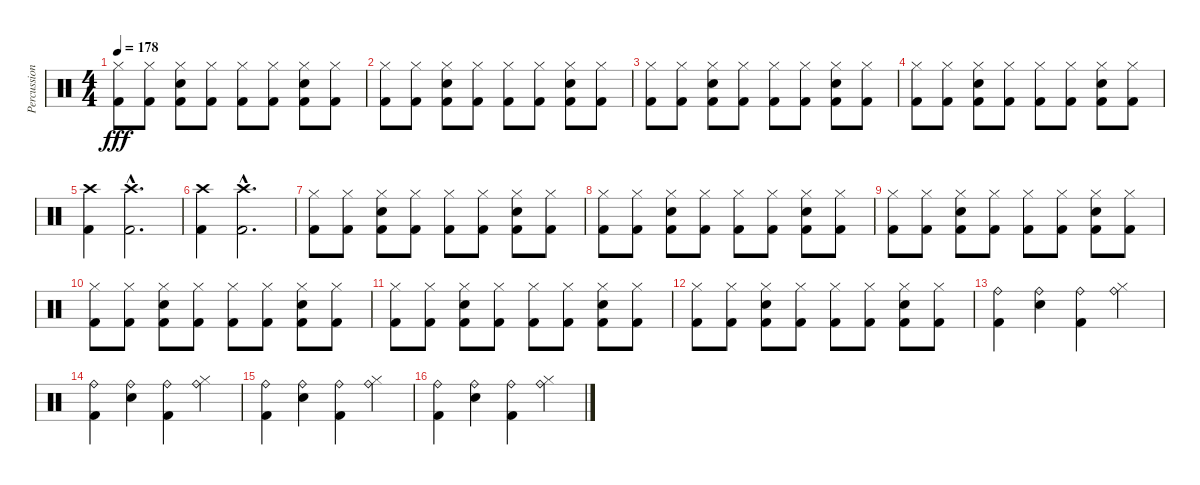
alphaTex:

\track ("Percussion" "Percussion") {instrument percussion}
\staff {score}
\articulation defaults
\ts (4 4)
\tempo 178
\clef neutral
\ks c
("Hi-Hat (closed)" "Kick (hit) 2").8{dy fff} ("Hi-Hat (closed)" "Kick (hit) 2").8 ("Hi-Hat (closed)" "Kick (hit) 2" "Electric Snare (hit)").8 ("Hi-Hat (closed)" "Kick (hit) 2").8 ("Hi-Hat (closed)" "Kick (hit) 2").8 ("Hi-Hat (closed)" "Kick (hit) 2").8 ("Hi-Hat (closed)" "Kick (hit) 2" "Electric Snare (hit)").8 ("Hi-Hat (closed)" "Kick (hit) 2").8 |
("Hi-Hat (closed)" "Kick (hit) 2").8 ("Hi-Hat (closed)" "Kick (hit) 2").8 ("Hi-Hat (closed)" "Kick (hit) 2" "Electric Snare (hit)").8 ("Hi-Hat (closed)" "Kick (hit) 2").8 ("Hi-Hat (closed)" "Kick (hit) 2").8 ("Hi-Hat (closed)" "Kick (hit) 2").8 ("Hi-Hat (closed)" "Kick (hit) 2" "Electric Snare (hit)").8 ("Hi-Hat (closed)" "Kick (hit) 2").8 |
("Hi-Hat (closed)" "Kick (hit) 2").8 ("Hi-Hat (closed)" "Kick (hit) 2").8 ("Hi-Hat (closed)" "Kick (hit) 2" "Electric Snare (hit)").8 ("Hi-Hat (closed)" "Kick (hit) 2").8 ("Hi-Hat (closed)" "Kick (hit) 2").8 ("Hi-Hat (closed)" "Kick (hit) 2").8 ("Hi-Hat (closed)" "Kick (hit) 2" "Electric Snare (hit)").8 ("Hi-Hat (closed)" "Kick (hit) 2").8 |
("Hi-Hat (closed)" "Kick (hit) 2").8 ("Hi-Hat (closed)" "Kick (hit) 2").8 ("Hi-Hat (closed)" "Kick (hit) 2" "Electric Snare (hit)").8 ("Hi-Hat (closed)" "Kick (hit) 2").8 ("Hi-Hat (closed)" "Kick (hit) 2").8 ("Hi-Hat (closed)" "Kick (hit) 2").8 ("Hi-Hat (closed)" "Kick (hit) 2" "Electric Snare (hit)").8 ("Hi-Hat (closed)" "Kick (hit) 2").8 |
("Crash high (hit)" "Kick (hit) 2").4 ("Crash high (hit)"{hac} "Kick (hit) 2"{hac}).2{d} |
("Crash high (hit)" "Kick (hit) 2").4 ("Crash high (hit)"{hac} "Kick (hit) 2"{hac}).2{d} |
("Hi-Hat (closed)" "Kick (hit) 2").8 ("Hi-Hat (closed)" "Kick (hit) 2").8 ("Hi-Hat (closed)" "Kick (hit) 2" "Electric Snare (hit)").8 ("Hi-Hat (closed)" "Kick (hit) 2").8 ("Hi-Hat (closed)" "Kick (hit) 2").8 ("Hi-Hat (closed)" "Kick (hit) 2").8 ("Hi-Hat (closed)" "Kick (hit) 2" "Electric Snare (hit)").8 ("Hi-Hat (closed)" "Kick (hit) 2").8 |
("Hi-Hat (closed)" "Kick (hit) 2").8 ("Hi-Hat (closed)" "Kick (hit) 2").8 ("Hi-Hat (closed)" "Kick (hit) 2" "Electric Snare (hit)").8 ("Hi-Hat (closed)" "Kick (hit) 2").8 ("Hi-Hat (closed)" "Kick (hit) 2").8 ("Hi-Hat (closed)" "Kick (hit) 2").8 ("Hi-Hat (closed)" "Kick (hit) 2" "Electric Snare (hit)").8 ("Hi-Hat (closed)" "Kick (hit) 2").8 |
("Hi-Hat (closed)" "Kick (hit) 2").8 ("Hi-Hat (closed)" "Kick (hit) 2").8 ("Hi-Hat (closed)" "Kick (hit) 2" "Electric Snare (hit)").8 ("Hi-Hat (closed)" "Kick (hit) 2").8 ("Hi-Hat (closed)" "Kick (hit) 2").8 ("Hi-Hat (closed)" "Kick (hit) 2").8 ("Hi-Hat (closed)" "Kick (hit) 2" "Electric Snare (hit)").8 ("Hi-Hat (closed)" "Kick (hit) 2").8 |
("Hi-Hat (closed)" "Kick (hit) 2").8 ("Hi-Hat (closed)" "Kick (hit) 2").8 ("Hi-Hat (closed)" "Kick (hit) 2" "Electric Snare (hit)").8 ("Hi-Hat (closed)" "Kick (hit) 2").8 ("Hi-Hat (closed)" "Kick (hit) 2").8 ("Hi-Hat (closed)" "Kick (hit) 2").8 ("Hi-Hat (closed)" "Kick (hit) 2" "Electric Snare (hit)").8 ("Hi-Hat (closed)" "Kick (hit) 2").8 |
("Hi-Hat (closed)" "Kick (hit) 2").8 ("Hi-Hat (closed)" "Kick (hit) 2").8 ("Hi-Hat (closed)" "Kick (hit) 2" "Electric Snare (hit)").8 ("Hi-Hat (closed)" "Kick (hit) 2").8 ("Hi-Hat (closed)" "Kick (hit) 2").8 ("Hi-Hat (closed)" "Kick (hit) 2").8 ("Hi-Hat (closed)" "Kick (hit) 2" "Electric Snare (hit)").8 ("Hi-Hat (closed)" "Kick (hit) 2").8 |
("Hi-Hat (closed)" "Kick (hit) 2").8 ("Hi-Hat (closed)" "Kick (hit) 2").8 ("Hi-Hat (closed)" "Kick (hit) 2" "Electric Snare (hit)").8 ("Hi-Hat (closed)" "Kick (hit) 2").8 ("Hi-Hat (closed)" "Kick (hit) 2").8 ("Hi-Hat (closed)" "Kick (hit) 2").8 ("Hi-Hat (closed)" "Kick (hit) 2" "Electric Snare (hit)").8 ("Hi-Hat (closed)" "Kick (hit) 2").8 |
("Ride (bell)" "Kick (hit) 2").4 ("Ride (bell)" "Electric Snare (hit)").4 ("Ride (bell)" "Kick (hit) 2").4 ("Ride (bell)" "Hi-Hat (closed)").4 |
("Ride (bell)" "Kick (hit) 2").4 ("Ride (bell)" "Electric Snare (hit)").4 ("Ride (bell)" "Kick (hit) 2").4 ("Ride (bell)" "Hi-Hat (closed)").4 |
("Ride (bell)" "Kick (hit) 2").4 ("Ride (bell)" "Electric Snare (hit)").4 ("Ride (bell)" "Kick (hit) 2").4 ("Ride (bell)" "Hi-Hat (closed)").4 |
("Ride (bell)" "Kick (hit) 2").4 ("Ride (bell)" "Electric Snare (hit)").4 ("Ride (bell)" "Kick (hit) 2").4 ("Ride (bell)" "Hi-Hat (closed)").4
